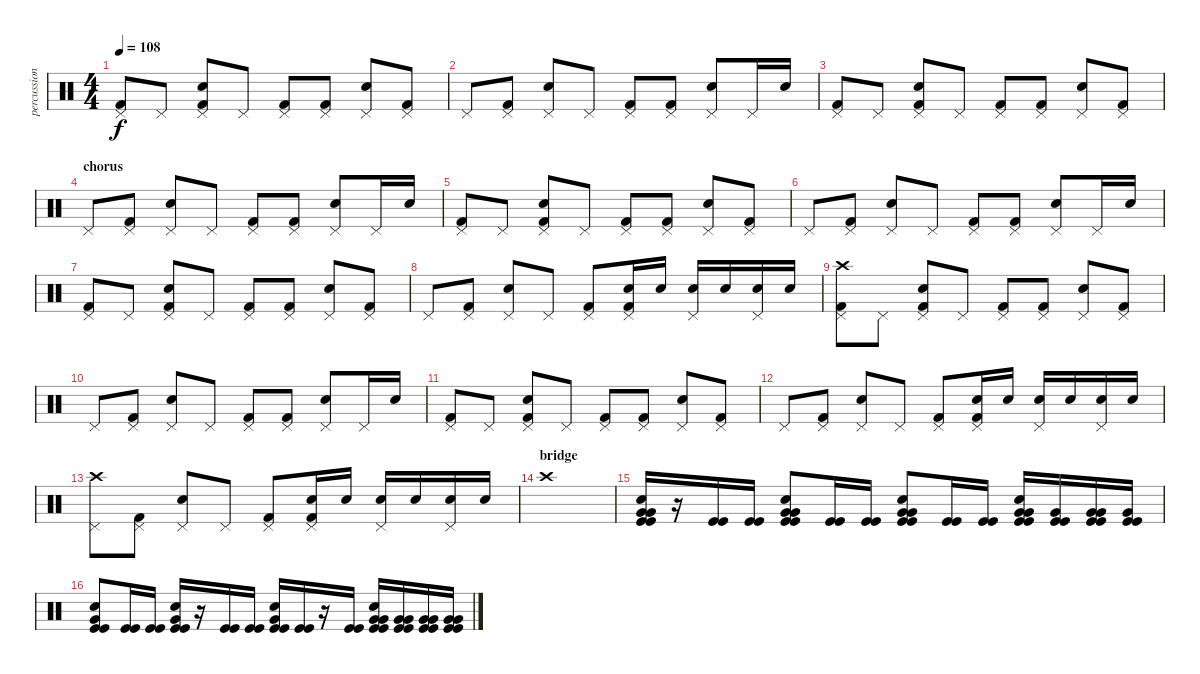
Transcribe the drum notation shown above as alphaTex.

\track ("percussion" "percussion") {instrument percussion}
\staff {score}
\articulation defaults
\ts (4 4)
\tempo 108
\clef neutral
\ks c
("Pedal Hi-Hat (hit)" "Kick (hit) 2").8{dy f} "Pedal Hi-Hat (hit)".8 ("Pedal Hi-Hat (hit)" "Kick (hit) 2" "Snare (hit) 2").8 "Pedal Hi-Hat (hit)".8 ("Pedal Hi-Hat (hit)" "Kick (hit) 2").8 ("Pedal Hi-Hat (hit)" "Kick (hit) 2").8 ("Pedal Hi-Hat (hit)" "Snare (hit) 2").8 ("Pedal Hi-Hat (hit)" "Kick (hit) 2").8 |
"Pedal Hi-Hat (hit)".8 ("Pedal Hi-Hat (hit)" "Kick (hit) 2").8 ("Pedal Hi-Hat (hit)" "Snare (hit) 2").8 "Pedal Hi-Hat (hit)".8 ("Pedal Hi-Hat (hit)" "Kick (hit) 2").8 ("Pedal Hi-Hat (hit)" "Kick (hit) 2").8 ("Pedal Hi-Hat (hit)" "Snare (hit) 2").8 "Pedal Hi-Hat (hit)".16 "Snare (hit) 2".16 |
("Pedal Hi-Hat (hit)" "Kick (hit) 2").8 "Pedal Hi-Hat (hit)".8 ("Pedal Hi-Hat (hit)" "Kick (hit) 2" "Snare (hit) 2").8 "Pedal Hi-Hat (hit)".8 ("Pedal Hi-Hat (hit)" "Kick (hit) 2").8 ("Pedal Hi-Hat (hit)" "Kick (hit) 2").8 ("Pedal Hi-Hat (hit)" "Snare (hit) 2").8 ("Pedal Hi-Hat (hit)" "Kick (hit) 2").8 |
\section ("" "chorus")
"Pedal Hi-Hat (hit)".8 ("Pedal Hi-Hat (hit)" "Kick (hit) 2").8 ("Pedal Hi-Hat (hit)" "Snare (hit) 2").8 "Pedal Hi-Hat (hit)".8 ("Pedal Hi-Hat (hit)" "Kick (hit) 2").8 ("Pedal Hi-Hat (hit)" "Kick (hit) 2").8 ("Pedal Hi-Hat (hit)" "Snare (hit) 2").8 "Pedal Hi-Hat (hit)".16 "Snare (hit) 2".16 |
("Pedal Hi-Hat (hit)" "Kick (hit) 2").8 "Pedal Hi-Hat (hit)".8 ("Pedal Hi-Hat (hit)" "Kick (hit) 2" "Snare (hit) 2").8 "Pedal Hi-Hat (hit)".8 ("Pedal Hi-Hat (hit)" "Kick (hit) 2").8 ("Pedal Hi-Hat (hit)" "Kick (hit) 2").8 ("Pedal Hi-Hat (hit)" "Snare (hit) 2").8 ("Pedal Hi-Hat (hit)" "Kick (hit) 2").8 |
"Pedal Hi-Hat (hit)".8 ("Pedal Hi-Hat (hit)" "Kick (hit) 2").8 ("Pedal Hi-Hat (hit)" "Snare (hit) 2").8 "Pedal Hi-Hat (hit)".8 ("Pedal Hi-Hat (hit)" "Kick (hit) 2").8 ("Pedal Hi-Hat (hit)" "Kick (hit) 2").8 ("Pedal Hi-Hat (hit)" "Snare (hit) 2").8 "Pedal Hi-Hat (hit)".16 "Snare (hit) 2".16 |
("Pedal Hi-Hat (hit)" "Kick (hit) 2").8 "Pedal Hi-Hat (hit)".8 ("Pedal Hi-Hat (hit)" "Kick (hit) 2" "Snare (hit) 2").8 "Pedal Hi-Hat (hit)".8 ("Pedal Hi-Hat (hit)" "Kick (hit) 2").8 ("Pedal Hi-Hat (hit)" "Kick (hit) 2").8 ("Pedal Hi-Hat (hit)" "Snare (hit) 2").8 ("Pedal Hi-Hat (hit)" "Kick (hit) 2").8 |
"Pedal Hi-Hat (hit)".8 ("Pedal Hi-Hat (hit)" "Kick (hit) 2").8 ("Pedal Hi-Hat (hit)" "Snare (hit) 2").8 "Pedal Hi-Hat (hit)".8 ("Pedal Hi-Hat (hit)" "Kick (hit) 2").8 ("Pedal Hi-Hat (hit)" "Kick (hit) 2" "Snare (hit) 2").16 "Snare (hit) 2".16 ("Pedal Hi-Hat (hit)" "Snare (hit) 2").16 "Snare (hit) 2".16 ("Pedal Hi-Hat (hit)" "Snare (hit) 2").16 "Snare (hit) 2".16 |
("Crash high (hit)" "Pedal Hi-Hat (hit)" "Kick (hit) 2").8 "Pedal Hi-Hat (hit)".8 ("Pedal Hi-Hat (hit)" "Kick (hit) 2" "Snare (hit) 2").8 "Pedal Hi-Hat (hit)".8 ("Pedal Hi-Hat (hit)" "Kick (hit) 2").8 ("Pedal Hi-Hat (hit)" "Kick (hit) 2").8 ("Pedal Hi-Hat (hit)" "Snare (hit) 2").8 ("Pedal Hi-Hat (hit)" "Kick (hit) 2").8 |
"Pedal Hi-Hat (hit)".8 ("Pedal Hi-Hat (hit)" "Kick (hit) 2").8 ("Pedal Hi-Hat (hit)" "Snare (hit) 2").8 "Pedal Hi-Hat (hit)".8 ("Pedal Hi-Hat (hit)" "Kick (hit) 2").8 ("Pedal Hi-Hat (hit)" "Kick (hit) 2").8 ("Pedal Hi-Hat (hit)" "Snare (hit) 2").8 "Pedal Hi-Hat (hit)".16 "Snare (hit) 2".16 |
("Pedal Hi-Hat (hit)" "Kick (hit) 2").8 "Pedal Hi-Hat (hit)".8 ("Pedal Hi-Hat (hit)" "Kick (hit) 2" "Snare (hit) 2").8 "Pedal Hi-Hat (hit)".8 ("Pedal Hi-Hat (hit)" "Kick (hit) 2").8 ("Pedal Hi-Hat (hit)" "Kick (hit) 2").8 ("Pedal Hi-Hat (hit)" "Snare (hit) 2").8 ("Pedal Hi-Hat (hit)" "Kick (hit) 2").8 |
"Pedal Hi-Hat (hit)".8 ("Pedal Hi-Hat (hit)" "Kick (hit) 2").8 ("Pedal Hi-Hat (hit)" "Snare (hit) 2").8 "Pedal Hi-Hat (hit)".8 ("Pedal Hi-Hat (hit)" "Kick (hit) 2").8 ("Pedal Hi-Hat (hit)" "Kick (hit) 2" "Snare (hit) 2").16 "Snare (hit) 2".16 ("Pedal Hi-Hat (hit)" "Snare (hit) 2").16 "Snare (hit) 2".16 ("Pedal Hi-Hat (hit)" "Snare (hit) 2").16 "Snare (hit) 2".16 |
("Crash high (hit)" "Pedal Hi-Hat (hit)").8 ("Pedal Hi-Hat (hit)" "Kick (hit) 2").8 ("Pedal Hi-Hat (hit)" "Snare (hit) 2").8 "Pedal Hi-Hat (hit)".8 ("Pedal Hi-Hat (hit)" "Kick (hit) 2").8 ("Pedal Hi-Hat (hit)" "Kick (hit) 2" "Snare (hit) 2").16 "Snare (hit) 2".16 ("Pedal Hi-Hat (hit)" "Snare (hit) 2").16 "Snare (hit) 2".16 ("Pedal Hi-Hat (hit)" "Snare (hit) 2").16 "Snare (hit) 2".16 |
\section ("" "bridge")
"Crash high (hit)".1 |
("Very Low Tom (hit)" "Very Low Tom (hit)" "Kick (hit)" "Kick (hit)" "Snare (hit) 2").16 r.16 ("Kick (hit)" "Kick (hit)").16 ("Kick (hit)" "Kick (hit)").16 ("Very Low Tom (hit)" "Very Low Tom (hit)" "Kick (hit)" "Kick (hit)" "Snare (hit) 2").8 ("Kick (hit)" "Kick (hit)").16 ("Kick (hit)" "Kick (hit)").16 ("Very Low Tom (hit)" "Very Low Tom (hit)" "Kick (hit)" "Kick (hit)" "Snare (hit) 2").8 ("Kick (hit)" "Kick (hit)").16 ("Kick (hit)" "Kick (hit)").16 ("Very Low Tom (hit)" "Very Low Tom (hit)" "Kick (hit)" "Kick (hit)" "Snare (hit) 2").16 ("Very Low Tom (hit)" "Kick (hit)" "Kick (hit)").16 ("Very Low Tom (hit)" "Very Low Tom (hit)" "Kick (hit)" "Kick (hit)").16 ("Very Low Tom (hit)" "Kick (hit)" "Kick (hit)").16 |
("Very Low Tom (hit)" "Kick (hit)" "Kick (hit)" "Snare (hit) 2").8 ("Kick (hit)" "Kick (hit)").16 ("Kick (hit)" "Kick (hit)").16 ("Very Low Tom (hit)" "Kick (hit)" "Kick (hit)" "Snare (hit) 2").16 r.16 ("Kick (hit)" "Kick (hit)").16 ("Kick (hit)" "Kick (hit)").16 ("Very Low Tom (hit)" "Kick (hit)" "Kick (hit)" "Snare (hit) 2").16 ("Kick (hit)" "Kick (hit)").16 r.16 ("Kick (hit)" "Kick (hit)").16 ("Very Low Tom (hit)" "Very Low Tom (hit)" "Kick (hit)" "Kick (hit)" "Snare (hit) 2").16 ("Very Low Tom (hit)" "Very Low Tom (hit)" "Kick (hit)" "Kick (hit)").16 ("Very Low Tom (hit)" "Very Low Tom (hit)" "Kick (hit)" "Kick (hit)").16 ("Very Low Tom (hit)" "Very Low Tom (hit)" "Kick (hit)" "Kick (hit)").16
